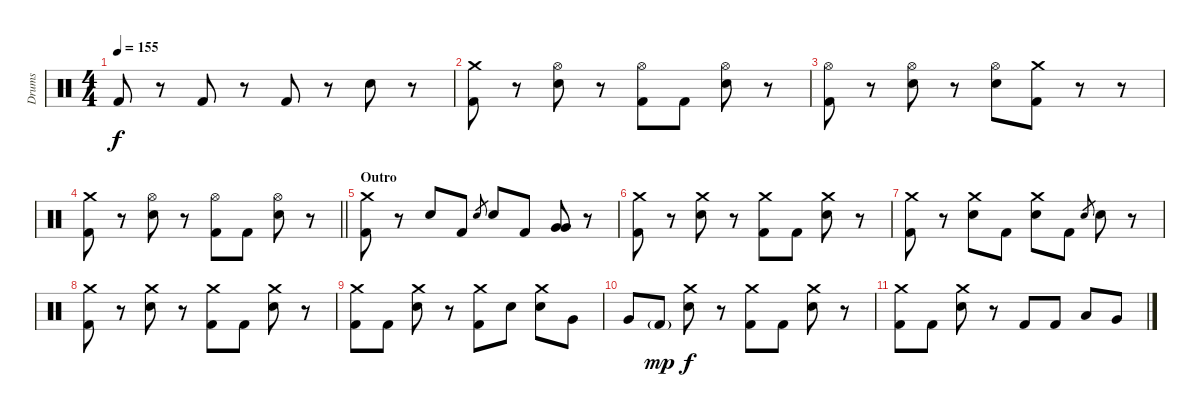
\track ("Drums" "Drums") {instrument percussion}
\staff {score}
\articulation defaults
\ts (4 4)
\tempo 155
\clef neutral
\ks c "Kick (hit) 2".8{dy f}
r.8 "Kick (hit) 2".8 r.8 "Kick (hit) 2".8 r.8 "Electric Snare (hit)".8 r.8 |
("Crash medium (hit)" "Kick (hit) 2").8 r.8 ("Hi-Hat (open)" "Electric Snare (hit)").8 r.8 ("Hi-Hat (open)" "Kick (hit) 2").8 "Kick (hit) 2".8 ("Hi-Hat (open)" "Electric Snare (hit)").8 r.8 |
("Hi-Hat (open)" "Kick (hit) 2").8 r.8 ("Hi-Hat (open)" "Electric Snare (hit)").8 r.8 ("Hi-Hat (open)" "Electric Snare (hit)").8 ("Crash medium (hit)" "Kick (hit) 2").8 r.8 r.8 |
\barLineRight lightlight
("Crash medium (hit)" "Kick (hit) 2").8 r.8 ("Hi-Hat (open)" "Electric Snare (hit)").8 r.8 ("Hi-Hat (open)" "Kick (hit) 2").8 "Kick (hit) 2".8 ("Hi-Hat (open)" "Electric Snare (hit)").8 r.8 |
\section ("" "Outro")
("Crash medium (hit)" "Kick (hit) 2").8 r.8 "Electric Snare (hit)".8 "Kick (hit) 2".8 "Electric Snare (hit)".8{gr} "Electric Snare (hit)".8 "Kick (hit) 2".8 ("Very Low Tom (hit)" "Very Low Tom (hit)").8 r.8 |
("Crash medium (hit)" "Kick (hit) 2").8 r.8 ("Crash medium (hit)" "Electric Snare (hit)").8 r.8 ("Crash medium (hit)" "Kick (hit) 2").8 "Kick (hit) 2".8 ("Crash medium (hit)" "Electric Snare (hit)").8 r.8 |
("Crash medium (hit)" "Kick (hit) 2").8 r.8 ("Crash medium (hit)" "Electric Snare (hit)").8 "Kick (hit) 2".8 ("Crash medium (hit)" "Electric Snare (hit)").8 "Kick (hit) 2".8 "Electric Snare (hit)".8{gr} "Electric Snare (hit)".8 r.8 |
("Crash medium (hit)" "Kick (hit) 2").8 r.8 ("Crash medium (hit)" "Electric Snare (hit)").8 r.8 ("Crash medium (hit)" "Kick (hit) 2").8 "Kick (hit) 2".8 ("Crash medium (hit)" "Electric Snare (hit)").8 r.8 |
("Crash medium (hit)" "Kick (hit) 2").8 "Kick (hit) 2".8 ("Crash medium (hit)" "Electric Snare (hit)").8 r.8 ("Crash medium (hit)" "Kick (hit) 2").8 "Electric Snare (hit)".8 ("Crash medium (hit)" "Electric Snare (hit)").8 "Very Low Tom (hit)".8 |
"Very Low Tom (hit)".8 "Kick (hit) 2"{g}.8{dy mp} ("Crash medium (hit)" "Electric Snare (hit)").8{dy f} r.8 ("Crash medium (hit)" "Kick (hit) 2").8 "Kick (hit) 2".8 ("Crash medium (hit)" "Electric Snare (hit)").8 r.8 |
("Crash medium (hit)" "Kick (hit) 2").8 "Kick (hit) 2".8 ("Crash medium (hit)" "Electric Snare (hit)").8 r.8 "Kick (hit) 2".8 "Kick (hit) 2".8 "Low Tom (hit)".8 "Very Low Tom (hit)".8
